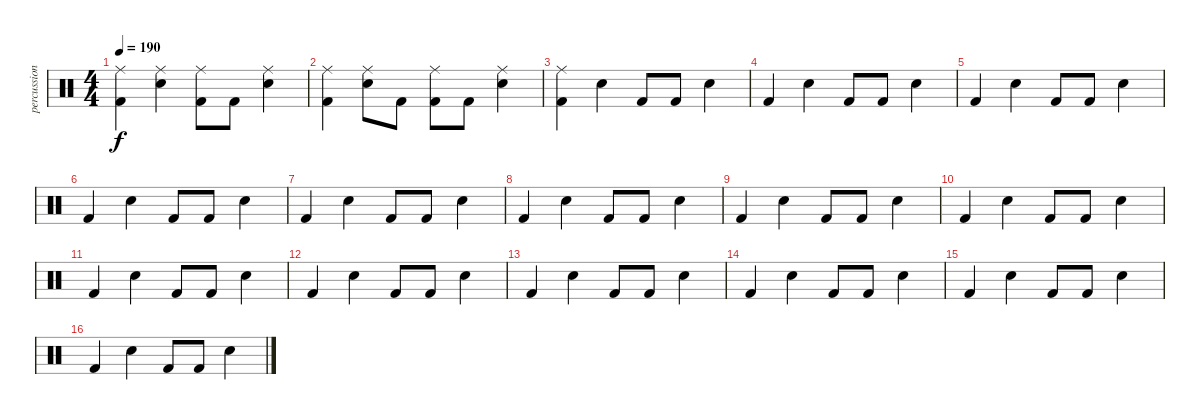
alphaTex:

\track ("percussion" "percussion") {instrument percussion}
\staff {score}
\articulation defaults
\ts (4 4)
\tempo 190
\clef neutral
\ks c
("Ride (middle)" "Kick (hit) 2").4{dy f} ("Ride (middle)" "Snare (hit) 2").4 ("Ride (middle)" "Kick (hit) 2").8 "Kick (hit) 2".8 ("Ride (middle)" "Snare (hit) 2").4 |
("Ride (middle)" "Kick (hit) 2").4 ("Ride (middle)" "Snare (hit) 2").8 "Kick (hit) 2".8 ("Ride (middle)" "Kick (hit) 2").8 "Kick (hit) 2".8 ("Ride (middle)" "Snare (hit) 2").4 |
("Ride (middle)" "Kick (hit) 2").4 "Snare (hit) 2".4 "Kick (hit) 2".8 "Kick (hit) 2".8 "Snare (hit) 2".4 |
"Kick (hit) 2".4 "Snare (hit) 2".4 "Kick (hit) 2".8 "Kick (hit) 2".8 "Snare (hit) 2".4 |
"Kick (hit) 2".4 "Snare (hit) 2".4 "Kick (hit) 2".8 "Kick (hit) 2".8 "Snare (hit) 2".4 |
"Kick (hit) 2".4 "Snare (hit) 2".4 "Kick (hit) 2".8 "Kick (hit) 2".8 "Snare (hit) 2".4 |
"Kick (hit) 2".4 "Snare (hit) 2".4 "Kick (hit) 2".8 "Kick (hit) 2".8 "Snare (hit) 2".4 |
"Kick (hit) 2".4 "Snare (hit) 2".4 "Kick (hit) 2".8 "Kick (hit) 2".8 "Snare (hit) 2".4 |
"Kick (hit) 2".4 "Snare (hit) 2".4 "Kick (hit) 2".8 "Kick (hit) 2".8 "Snare (hit) 2".4 |
"Kick (hit) 2".4 "Snare (hit) 2".4 "Kick (hit) 2".8 "Kick (hit) 2".8 "Snare (hit) 2".4 |
"Kick (hit) 2".4 "Snare (hit) 2".4 "Kick (hit) 2".8 "Kick (hit) 2".8 "Snare (hit) 2".4 |
"Kick (hit) 2".4 "Snare (hit) 2".4 "Kick (hit) 2".8 "Kick (hit) 2".8 "Snare (hit) 2".4 |
"Kick (hit) 2".4 "Snare (hit) 2".4 "Kick (hit) 2".8 "Kick (hit) 2".8 "Snare (hit) 2".4 |
"Kick (hit) 2".4 "Snare (hit) 2".4 "Kick (hit) 2".8 "Kick (hit) 2".8 "Snare (hit) 2".4 |
"Kick (hit) 2".4 "Snare (hit) 2".4 "Kick (hit) 2".8 "Kick (hit) 2".8 "Snare (hit) 2".4 |
"Kick (hit) 2".4 "Snare (hit) 2".4 "Kick (hit) 2".8 "Kick (hit) 2".8 "Snare (hit) 2".4
